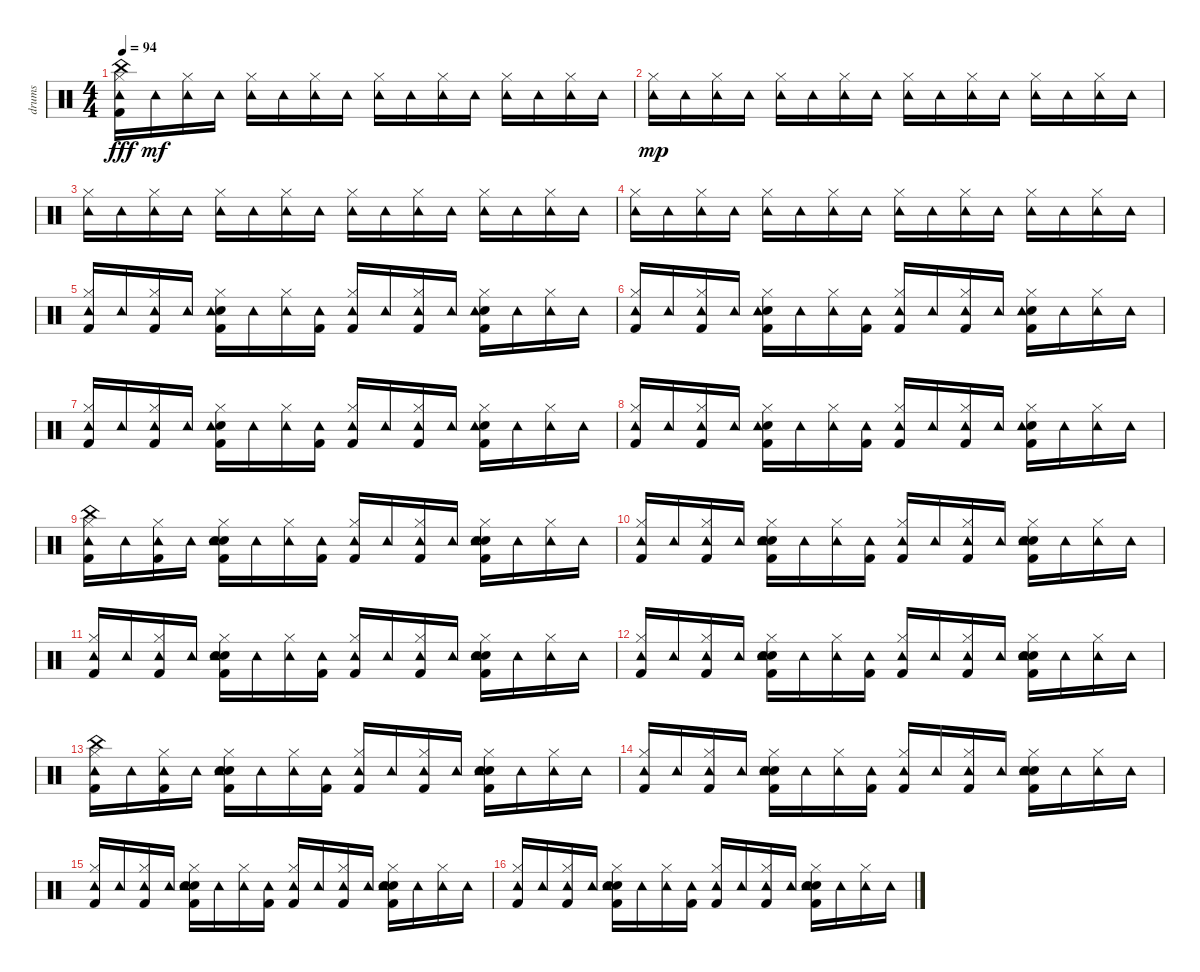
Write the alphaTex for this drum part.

\track ("drums" "drums") {instrument percussion}
\staff {score}
\articulation defaults
\ts (4 4)
\tempo 94
\clef neutral
\ks c
("Kick (hit) 2" "Hi-Hat (closed)" "Tambourine (hit)" "China (hit)").16{dy fff} "Tambourine (hit)".16{dy mf} ("Hi-Hat (closed)" "Tambourine (hit)").16 "Tambourine (hit)".16 ("Hi-Hat (closed)" "Tambourine (hit)").16 "Tambourine (hit)".16 ("Hi-Hat (closed)" "Tambourine (hit)").16 "Tambourine (hit)".16 ("Hi-Hat (closed)" "Tambourine (hit)").16 "Tambourine (hit)".16 ("Hi-Hat (closed)" "Tambourine (hit)").16 "Tambourine (hit)".16 ("Hi-Hat (closed)" "Tambourine (hit)").16 "Tambourine (hit)".16 ("Hi-Hat (closed)" "Tambourine (hit)").16 "Tambourine (hit)".16 |
("Hi-Hat (closed)" "Tambourine (hit)").16{dy mp} "Tambourine (hit)".16 ("Hi-Hat (closed)" "Tambourine (hit)").16 "Tambourine (hit)".16 ("Hi-Hat (closed)" "Tambourine (hit)").16 "Tambourine (hit)".16 ("Hi-Hat (closed)" "Tambourine (hit)").16 "Tambourine (hit)".16 ("Hi-Hat (closed)" "Tambourine (hit)").16 "Tambourine (hit)".16 ("Hi-Hat (closed)" "Tambourine (hit)").16 "Tambourine (hit)".16 ("Hi-Hat (closed)" "Tambourine (hit)").16 "Tambourine (hit)".16 ("Hi-Hat (closed)" "Tambourine (hit)").16 "Tambourine (hit)".16 |
("Hi-Hat (closed)" "Tambourine (hit)").16 "Tambourine (hit)".16 ("Hi-Hat (closed)" "Tambourine (hit)").16 "Tambourine (hit)".16 ("Hi-Hat (closed)" "Tambourine (hit)").16 "Tambourine (hit)".16 ("Hi-Hat (closed)" "Tambourine (hit)").16 "Tambourine (hit)".16 ("Hi-Hat (closed)" "Tambourine (hit)").16 "Tambourine (hit)".16 ("Hi-Hat (closed)" "Tambourine (hit)").16 "Tambourine (hit)".16 ("Hi-Hat (closed)" "Tambourine (hit)").16 "Tambourine (hit)".16 ("Hi-Hat (closed)" "Tambourine (hit)").16 "Tambourine (hit)".16 |
("Hi-Hat (closed)" "Tambourine (hit)").16 "Tambourine (hit)".16 ("Hi-Hat (closed)" "Tambourine (hit)").16 "Tambourine (hit)".16 ("Hi-Hat (closed)" "Tambourine (hit)").16 "Tambourine (hit)".16 ("Hi-Hat (closed)" "Tambourine (hit)").16 "Tambourine (hit)".16 ("Hi-Hat (closed)" "Tambourine (hit)").16 "Tambourine (hit)".16 ("Hi-Hat (closed)" "Tambourine (hit)").16 "Tambourine (hit)".16 ("Hi-Hat (closed)" "Tambourine (hit)").16 "Tambourine (hit)".16 ("Hi-Hat (closed)" "Tambourine (hit)").16 "Tambourine (hit)".16 |
("Kick (hit) 2" "Hi-Hat (closed)" "Tambourine (hit)").16 "Tambourine (hit)".16 ("Kick (hit) 2" "Hi-Hat (closed)" "Tambourine (hit)").16 "Tambourine (hit)".16 ("Kick (hit) 2" "Snare (hit) 2" "Hi-Hat (closed)" "Tambourine (hit)").16 "Tambourine (hit)".16 ("Hi-Hat (closed)" "Tambourine (hit)").16 ("Kick (hit) 2" "Tambourine (hit)").16 ("Kick (hit) 2" "Hi-Hat (closed)" "Tambourine (hit)").16 "Tambourine (hit)".16 ("Kick (hit) 2" "Hi-Hat (closed)" "Tambourine (hit)").16 "Tambourine (hit)".16 ("Kick (hit) 2" "Snare (hit) 2" "Hi-Hat (closed)" "Tambourine (hit)").16 "Tambourine (hit)".16 ("Hi-Hat (closed)" "Tambourine (hit)").16 "Tambourine (hit)".16 |
("Kick (hit) 2" "Hi-Hat (closed)" "Tambourine (hit)").16 "Tambourine (hit)".16 ("Kick (hit) 2" "Hi-Hat (closed)" "Tambourine (hit)").16 "Tambourine (hit)".16 ("Kick (hit) 2" "Snare (hit) 2" "Hi-Hat (closed)" "Tambourine (hit)").16 "Tambourine (hit)".16 ("Hi-Hat (closed)" "Tambourine (hit)").16 ("Kick (hit) 2" "Tambourine (hit)").16 ("Kick (hit) 2" "Hi-Hat (closed)" "Tambourine (hit)").16 "Tambourine (hit)".16 ("Kick (hit) 2" "Hi-Hat (closed)" "Tambourine (hit)").16 "Tambourine (hit)".16 ("Kick (hit) 2" "Snare (hit) 2" "Hi-Hat (closed)" "Tambourine (hit)").16 "Tambourine (hit)".16 ("Hi-Hat (closed)" "Tambourine (hit)").16 "Tambourine (hit)".16 |
("Kick (hit) 2" "Hi-Hat (closed)" "Tambourine (hit)").16 "Tambourine (hit)".16 ("Kick (hit) 2" "Hi-Hat (closed)" "Tambourine (hit)").16 "Tambourine (hit)".16 ("Kick (hit) 2" "Snare (hit) 2" "Hi-Hat (closed)" "Tambourine (hit)").16 "Tambourine (hit)".16 ("Hi-Hat (closed)" "Tambourine (hit)").16 ("Kick (hit) 2" "Tambourine (hit)").16 ("Kick (hit) 2" "Hi-Hat (closed)" "Tambourine (hit)").16 "Tambourine (hit)".16 ("Kick (hit) 2" "Hi-Hat (closed)" "Tambourine (hit)").16 "Tambourine (hit)".16 ("Kick (hit) 2" "Snare (hit) 2" "Hi-Hat (closed)" "Tambourine (hit)").16 "Tambourine (hit)".16 ("Hi-Hat (closed)" "Tambourine (hit)").16 "Tambourine (hit)".16 |
("Kick (hit) 2" "Hi-Hat (closed)" "Tambourine (hit)").16 "Tambourine (hit)".16 ("Kick (hit) 2" "Hi-Hat (closed)" "Tambourine (hit)").16 "Tambourine (hit)".16 ("Kick (hit) 2" "Snare (hit) 2" "Hi-Hat (closed)" "Tambourine (hit)").16 "Tambourine (hit)".16 ("Hi-Hat (closed)" "Tambourine (hit)").16 ("Kick (hit) 2" "Tambourine (hit)").16 ("Kick (hit) 2" "Hi-Hat (closed)" "Tambourine (hit)").16 "Tambourine (hit)".16 ("Kick (hit) 2" "Hi-Hat (closed)" "Tambourine (hit)").16 "Tambourine (hit)".16 ("Kick (hit) 2" "Snare (hit) 2" "Hi-Hat (closed)" "Tambourine (hit)").16 "Tambourine (hit)".16 ("Hi-Hat (closed)" "Tambourine (hit)").16 "Tambourine (hit)".16 |
("Kick (hit) 2" "Hi-Hat (closed)" "Tambourine (hit)" "China (hit)").16 "Tambourine (hit)".16 ("Kick (hit) 2" "Hi-Hat (closed)" "Tambourine (hit)").16 "Tambourine (hit)".16 ("Kick (hit) 2" "Snare (hit) 2" "Hi-Hat (closed)" "Hand Clap (hit)" "Tambourine (hit)").16 "Tambourine (hit)".16 ("Hi-Hat (closed)" "Tambourine (hit)").16 ("Kick (hit) 2" "Tambourine (hit)").16 ("Kick (hit) 2" "Hi-Hat (closed)" "Tambourine (hit)").16 "Tambourine (hit)".16 ("Kick (hit) 2" "Hi-Hat (closed)" "Tambourine (hit)").16 "Tambourine (hit)".16 ("Kick (hit) 2" "Snare (hit) 2" "Hi-Hat (closed)" "Hand Clap (hit)" "Tambourine (hit)").16 "Tambourine (hit)".16 ("Hi-Hat (closed)" "Tambourine (hit)").16 "Tambourine (hit)".16 |
("Kick (hit) 2" "Hi-Hat (closed)" "Tambourine (hit)").16 "Tambourine (hit)".16 ("Kick (hit) 2" "Hi-Hat (closed)" "Tambourine (hit)").16 "Tambourine (hit)".16 ("Kick (hit) 2" "Snare (hit) 2" "Hi-Hat (closed)" "Hand Clap (hit)" "Tambourine (hit)").16 "Tambourine (hit)".16 ("Hi-Hat (closed)" "Tambourine (hit)").16 ("Kick (hit) 2" "Tambourine (hit)").16 ("Kick (hit) 2" "Hi-Hat (closed)" "Tambourine (hit)").16 "Tambourine (hit)".16 ("Kick (hit) 2" "Hi-Hat (closed)" "Tambourine (hit)").16 "Tambourine (hit)".16 ("Kick (hit) 2" "Snare (hit) 2" "Hi-Hat (closed)" "Hand Clap (hit)" "Tambourine (hit)").16 "Tambourine (hit)".16 ("Hi-Hat (closed)" "Tambourine (hit)").16 "Tambourine (hit)".16 |
("Kick (hit) 2" "Hi-Hat (closed)" "Tambourine (hit)").16 "Tambourine (hit)".16 ("Kick (hit) 2" "Hi-Hat (closed)" "Tambourine (hit)").16 "Tambourine (hit)".16 ("Kick (hit) 2" "Snare (hit) 2" "Hi-Hat (closed)" "Hand Clap (hit)" "Tambourine (hit)").16 "Tambourine (hit)".16 ("Hi-Hat (closed)" "Tambourine (hit)").16 ("Kick (hit) 2" "Tambourine (hit)").16 ("Kick (hit) 2" "Hi-Hat (closed)" "Tambourine (hit)").16 "Tambourine (hit)".16 ("Kick (hit) 2" "Hi-Hat (closed)" "Tambourine (hit)").16 "Tambourine (hit)".16 ("Kick (hit) 2" "Snare (hit) 2" "Hi-Hat (closed)" "Hand Clap (hit)" "Tambourine (hit)").16 "Tambourine (hit)".16 ("Hi-Hat (closed)" "Tambourine (hit)").16 "Tambourine (hit)".16 |
("Kick (hit) 2" "Hi-Hat (closed)" "Tambourine (hit)").16 "Tambourine (hit)".16 ("Kick (hit) 2" "Hi-Hat (closed)" "Tambourine (hit)").16 "Tambourine (hit)".16 ("Kick (hit) 2" "Snare (hit) 2" "Hi-Hat (closed)" "Hand Clap (hit)" "Tambourine (hit)").16 "Tambourine (hit)".16 ("Hi-Hat (closed)" "Tambourine (hit)").16 ("Kick (hit) 2" "Tambourine (hit)").16 ("Kick (hit) 2" "Hi-Hat (closed)" "Tambourine (hit)").16 "Tambourine (hit)".16 ("Kick (hit) 2" "Hi-Hat (closed)" "Tambourine (hit)").16 "Tambourine (hit)".16 ("Kick (hit) 2" "Snare (hit) 2" "Hi-Hat (closed)" "Hand Clap (hit)" "Tambourine (hit)").16 "Tambourine (hit)".16 ("Hi-Hat (closed)" "Tambourine (hit)").16 "Tambourine (hit)".16 |
("Kick (hit) 2" "Hi-Hat (closed)" "Tambourine (hit)" "China (hit)").16 "Tambourine (hit)".16 ("Kick (hit) 2" "Hi-Hat (closed)" "Tambourine (hit)").16 "Tambourine (hit)".16 ("Kick (hit) 2" "Snare (hit) 2" "Hi-Hat (closed)" "Hand Clap (hit)" "Tambourine (hit)").16 "Tambourine (hit)".16 ("Hi-Hat (closed)" "Tambourine (hit)").16 ("Kick (hit) 2" "Tambourine (hit)").16 ("Kick (hit) 2" "Hi-Hat (closed)" "Tambourine (hit)").16 "Tambourine (hit)".16 ("Kick (hit) 2" "Hi-Hat (closed)" "Tambourine (hit)").16 "Tambourine (hit)".16 ("Kick (hit) 2" "Snare (hit) 2" "Hi-Hat (closed)" "Hand Clap (hit)" "Tambourine (hit)").16 "Tambourine (hit)".16 ("Hi-Hat (closed)" "Tambourine (hit)").16 "Tambourine (hit)".16 |
("Kick (hit) 2" "Hi-Hat (closed)" "Tambourine (hit)").16 "Tambourine (hit)".16 ("Kick (hit) 2" "Hi-Hat (closed)" "Tambourine (hit)").16 "Tambourine (hit)".16 ("Kick (hit) 2" "Snare (hit) 2" "Hi-Hat (closed)" "Hand Clap (hit)" "Tambourine (hit)").16 "Tambourine (hit)".16 ("Hi-Hat (closed)" "Tambourine (hit)").16 ("Kick (hit) 2" "Tambourine (hit)").16 ("Kick (hit) 2" "Hi-Hat (closed)" "Tambourine (hit)").16 "Tambourine (hit)".16 ("Kick (hit) 2" "Hi-Hat (closed)" "Tambourine (hit)").16 "Tambourine (hit)".16 ("Kick (hit) 2" "Snare (hit) 2" "Hi-Hat (closed)" "Hand Clap (hit)" "Tambourine (hit)").16 "Tambourine (hit)".16 ("Hi-Hat (closed)" "Tambourine (hit)").16 "Tambourine (hit)".16 |
("Kick (hit) 2" "Hi-Hat (closed)" "Tambourine (hit)").16 "Tambourine (hit)".16 ("Kick (hit) 2" "Hi-Hat (closed)" "Tambourine (hit)").16 "Tambourine (hit)".16 ("Kick (hit) 2" "Snare (hit) 2" "Hi-Hat (closed)" "Hand Clap (hit)" "Tambourine (hit)").16 "Tambourine (hit)".16 ("Hi-Hat (closed)" "Tambourine (hit)").16 ("Kick (hit) 2" "Tambourine (hit)").16 ("Kick (hit) 2" "Hi-Hat (closed)" "Tambourine (hit)").16 "Tambourine (hit)".16 ("Kick (hit) 2" "Hi-Hat (closed)" "Tambourine (hit)").16 "Tambourine (hit)".16 ("Kick (hit) 2" "Snare (hit) 2" "Hi-Hat (closed)" "Hand Clap (hit)" "Tambourine (hit)").16 "Tambourine (hit)".16 ("Hi-Hat (closed)" "Tambourine (hit)").16 "Tambourine (hit)".16 |
("Kick (hit) 2" "Hi-Hat (closed)" "Tambourine (hit)").16 "Tambourine (hit)".16 ("Kick (hit) 2" "Hi-Hat (closed)" "Tambourine (hit)").16 "Tambourine (hit)".16 ("Kick (hit) 2" "Snare (hit) 2" "Hi-Hat (closed)" "Hand Clap (hit)" "Tambourine (hit)").16 "Tambourine (hit)".16 ("Hi-Hat (closed)" "Tambourine (hit)").16 ("Kick (hit) 2" "Tambourine (hit)").16 ("Kick (hit) 2" "Hi-Hat (closed)" "Tambourine (hit)").16 "Tambourine (hit)".16 ("Kick (hit) 2" "Hi-Hat (closed)" "Tambourine (hit)").16 "Tambourine (hit)".16 ("Kick (hit) 2" "Snare (hit) 2" "Hi-Hat (closed)" "Hand Clap (hit)" "Tambourine (hit)").16 "Tambourine (hit)".16 ("Hi-Hat (closed)" "Tambourine (hit)").16 "Tambourine (hit)".16
